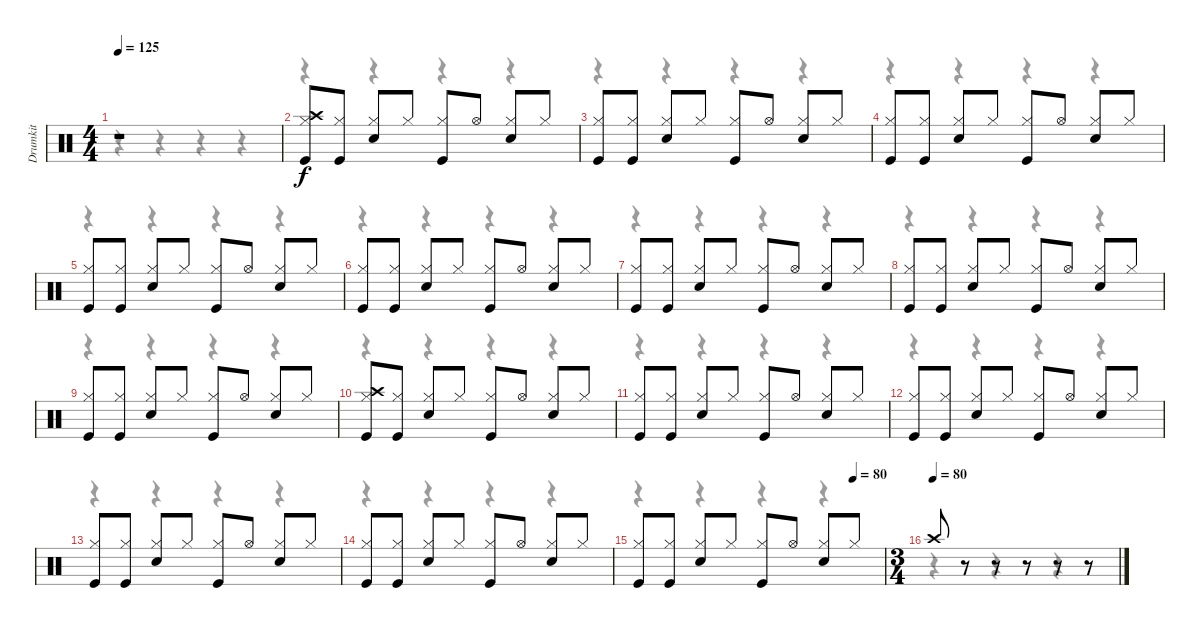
\track ("Drumkit" "Drumkit") {instrument percussion}
\staff {score}
\articulation defaults
\voice
\ts (4 4)
\tempo 125
\clef neutral
\ks c
r.1{dy f} |
("Hi-Hat (closed)" "Kick (hit)" "Crash high (hit)").8 ("Hi-Hat (closed)" "Kick (hit)").8 ("Hi-Hat (closed)" "Snare (hit) 2").8 "Hi-Hat (closed)".8 ("Hi-Hat (closed)" "Kick (hit)").8 "Hi-Hat (open)".8 ("Hi-Hat (closed)" "Snare (hit) 2").8 "Hi-Hat (closed)".8 |
("Hi-Hat (closed)" "Kick (hit)").8 ("Hi-Hat (closed)" "Kick (hit)").8 ("Hi-Hat (closed)" "Snare (hit) 2").8 "Hi-Hat (closed)".8 ("Hi-Hat (closed)" "Kick (hit)").8 "Hi-Hat (open)".8 ("Hi-Hat (closed)" "Snare (hit) 2").8 "Hi-Hat (closed)".8 |
("Hi-Hat (closed)" "Kick (hit)").8 ("Hi-Hat (closed)" "Kick (hit)").8 ("Hi-Hat (closed)" "Snare (hit) 2").8 "Hi-Hat (closed)".8 ("Hi-Hat (closed)" "Kick (hit)").8 "Hi-Hat (open)".8 ("Hi-Hat (closed)" "Snare (hit) 2").8 "Hi-Hat (closed)".8 |
("Hi-Hat (closed)" "Kick (hit)").8 ("Hi-Hat (closed)" "Kick (hit)").8 ("Hi-Hat (closed)" "Snare (hit) 2").8 "Hi-Hat (closed)".8 ("Hi-Hat (closed)" "Kick (hit)").8 "Hi-Hat (open)".8 ("Hi-Hat (closed)" "Snare (hit) 2").8 "Hi-Hat (closed)".8 |
("Hi-Hat (closed)" "Kick (hit)").8 ("Hi-Hat (closed)" "Kick (hit)").8 ("Hi-Hat (closed)" "Snare (hit) 2").8 "Hi-Hat (closed)".8 ("Hi-Hat (closed)" "Kick (hit)").8 "Hi-Hat (open)".8 ("Hi-Hat (closed)" "Snare (hit) 2").8 "Hi-Hat (closed)".8 |
("Hi-Hat (closed)" "Kick (hit)").8 ("Hi-Hat (closed)" "Kick (hit)").8 ("Hi-Hat (closed)" "Snare (hit) 2").8 "Hi-Hat (closed)".8 ("Hi-Hat (closed)" "Kick (hit)").8 "Hi-Hat (open)".8 ("Hi-Hat (closed)" "Snare (hit) 2").8 "Hi-Hat (closed)".8 |
("Hi-Hat (closed)" "Kick (hit)").8 ("Hi-Hat (closed)" "Kick (hit)").8 ("Hi-Hat (closed)" "Snare (hit) 2").8 "Hi-Hat (closed)".8 ("Hi-Hat (closed)" "Kick (hit)").8 "Hi-Hat (open)".8 ("Hi-Hat (closed)" "Snare (hit) 2").8 "Hi-Hat (closed)".8 |
("Hi-Hat (closed)" "Kick (hit)").8 ("Hi-Hat (closed)" "Kick (hit)").8 ("Hi-Hat (closed)" "Snare (hit) 2").8 "Hi-Hat (closed)".8 ("Hi-Hat (closed)" "Kick (hit)").8 "Hi-Hat (open)".8 ("Hi-Hat (closed)" "Snare (hit) 2").8 "Hi-Hat (closed)".8 |
("Hi-Hat (closed)" "Kick (hit)" "Crash high (hit)").8 ("Hi-Hat (closed)" "Kick (hit)").8 ("Hi-Hat (closed)" "Snare (hit) 2").8 "Hi-Hat (closed)".8 ("Hi-Hat (closed)" "Kick (hit)").8 "Hi-Hat (open)".8 ("Hi-Hat (closed)" "Snare (hit) 2").8 "Hi-Hat (closed)".8 |
("Hi-Hat (closed)" "Kick (hit)").8 ("Hi-Hat (closed)" "Kick (hit)").8 ("Hi-Hat (closed)" "Snare (hit) 2").8 "Hi-Hat (closed)".8 ("Hi-Hat (closed)" "Kick (hit)").8 "Hi-Hat (open)".8 ("Hi-Hat (closed)" "Snare (hit) 2").8 "Hi-Hat (closed)".8 |
("Hi-Hat (closed)" "Kick (hit)").8 ("Hi-Hat (closed)" "Kick (hit)").8 ("Hi-Hat (closed)" "Snare (hit) 2").8 "Hi-Hat (closed)".8 ("Hi-Hat (closed)" "Kick (hit)").8 "Hi-Hat (open)".8 ("Hi-Hat (closed)" "Snare (hit) 2").8 "Hi-Hat (closed)".8 |
("Hi-Hat (closed)" "Kick (hit)").8 ("Hi-Hat (closed)" "Kick (hit)").8 ("Hi-Hat (closed)" "Snare (hit) 2").8 "Hi-Hat (closed)".8 ("Hi-Hat (closed)" "Kick (hit)").8 "Hi-Hat (open)".8 ("Hi-Hat (closed)" "Snare (hit) 2").8 "Hi-Hat (closed)".8 |
("Hi-Hat (closed)" "Kick (hit)").8 ("Hi-Hat (closed)" "Kick (hit)").8 ("Hi-Hat (closed)" "Snare (hit) 2").8 "Hi-Hat (closed)".8 ("Hi-Hat (closed)" "Kick (hit)").8 "Hi-Hat (open)".8 ("Hi-Hat (closed)" "Snare (hit) 2").8 "Hi-Hat (closed)".8 |
\tempo (80 0.875)
("Hi-Hat (closed)" "Kick (hit)").8 ("Hi-Hat (closed)" "Kick (hit)").8 ("Hi-Hat (closed)" "Snare (hit) 2").8 "Hi-Hat (closed)".8 ("Hi-Hat (closed)" "Kick (hit)").8 "Hi-Hat (open)".8 ("Hi-Hat (closed)" "Snare (hit) 2").8 "Hi-Hat (closed)".8 |
\ts (3 4)
\tempo (80)
"Crash high (hit)".8 r.8 r.8 r.8 r.8 r.8
\voice
\clef neutral
\ottava regular
\simile none
\ks c
r.4{dy f} r.4 r.4 r.4 |
r.4 r.4 r.4 r.4 |
r.4 r.4 r.4 r.4 |
r.4 r.4 r.4 r.4 |
r.4 r.4 r.4 r.4 |
r.4 r.4 r.4 r.4 |
r.4 r.4 r.4 r.4 |
r.4 r.4 r.4 r.4 |
r.4 r.4 r.4 r.4 |
r.4 r.4 r.4 r.4 |
r.4 r.4 r.4 r.4 |
r.4 r.4 r.4 r.4 |
r.4 r.4 r.4 r.4 |
r.4 r.4 r.4 r.4 |
r.4 r.4 r.4 r.4 |
r.4 r.4 r.4
